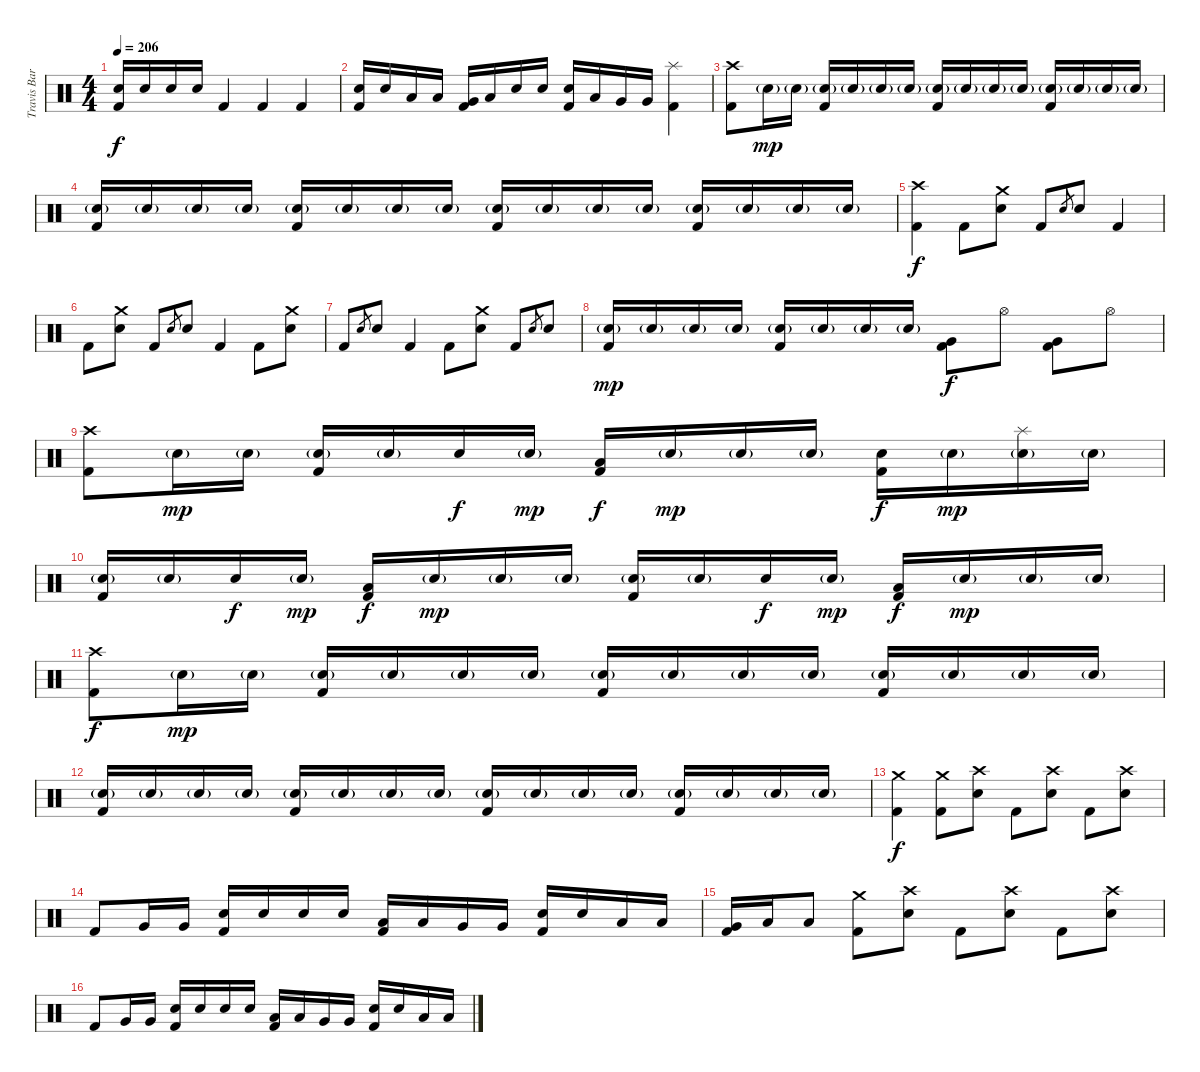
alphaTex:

\track ("Travis Barker - Drums" "Travis Bar") {instrument percussion}
\staff {score}
\articulation defaults
\ts (4 4)
\tempo 206
\clef neutral
\ks c
("Electric Snare (hit)" "Kick (hit) 2").16{dy f} "Electric Snare (hit)".16 "Electric Snare (hit)".16 "Electric Snare (hit)".16 "Kick (hit) 2".4 "Kick (hit) 2".4 "Kick (hit) 2".4 |
("Electric Snare (hit)" "Kick (hit) 2").16 "Electric Snare (hit)".16 "Low Tom (hit)".16 "Low Tom (hit)".16 ("Very Low Tom (hit)" "Kick (hit) 2").16 "Low Floor Tom (hit)".16 "Electric Snare (hit)".16 "Electric Snare (hit)".16 ("Electric Snare (hit)" "Kick (hit) 2").16 "Low Tom (hit)".16 "Very Low Tom (hit)".16 "Very Low Tom (hit)".16 ("Splash (hit)" "Kick (hit) 2").4 |
("Crash high (hit)" "Kick (hit) 2").8 "Electric Snare (hit)"{g}.16{dy mp} "Electric Snare (hit)"{g}.16 ("Electric Snare (hit)"{g} "Kick (hit) 2").16 "Electric Snare (hit)"{g}.16 "Electric Snare (hit)"{g}.16 "Electric Snare (hit)"{g}.16 ("Electric Snare (hit)"{g} "Kick (hit) 2").16 "Electric Snare (hit)"{g}.16 "Electric Snare (hit)"{g}.16 "Electric Snare (hit)"{g}.16 ("Electric Snare (hit)"{g} "Kick (hit) 2").16 "Electric Snare (hit)"{g}.16 "Electric Snare (hit)"{g}.16 "Electric Snare (hit)"{g}.16 |
("Electric Snare (hit)"{g} "Kick (hit) 2").16 "Electric Snare (hit)"{g}.16 "Electric Snare (hit)"{g}.16 "Electric Snare (hit)"{g}.16 ("Electric Snare (hit)"{g} "Kick (hit) 2").16 "Electric Snare (hit)"{g}.16 "Electric Snare (hit)"{g}.16 "Electric Snare (hit)"{g}.16 ("Electric Snare (hit)"{g} "Kick (hit) 2").16 "Electric Snare (hit)"{g}.16 "Electric Snare (hit)"{g}.16 "Electric Snare (hit)"{g}.16 ("Electric Snare (hit)"{g} "Kick (hit) 2").16 "Electric Snare (hit)"{g}.16 "Electric Snare (hit)"{g}.16 "Electric Snare (hit)"{g}.16 |
("Crash high (hit)" "Kick (hit) 2").4{dy f} "Kick (hit) 2".8 ("Crash medium (hit)" "Electric Snare (hit)").8 "Kick (hit) 2".8 "Electric Snare (hit)".8{gr} "Electric Snare (hit)".8 "Kick (hit) 2".4 |
"Kick (hit) 2".8 ("Crash medium (hit)" "Electric Snare (hit)").8 "Kick (hit) 2".8 "Electric Snare (hit)".8{gr} "Electric Snare (hit)".8 "Kick (hit) 2".4 "Kick (hit) 2".8 ("Crash medium (hit)" "Electric Snare (hit)").8 |
"Kick (hit) 2".8 "Electric Snare (hit)".8{gr} "Electric Snare (hit)".8 "Kick (hit) 2".4 "Kick (hit) 2".8 ("Crash medium (hit)" "Electric Snare (hit)").8 "Kick (hit) 2".8 "Electric Snare (hit)".8{gr} "Electric Snare (hit)".8 |
("Electric Snare (hit)"{g} "Kick (hit) 2").16{dy mp} "Electric Snare (hit)"{g}.16 "Electric Snare (hit)"{g}.16 "Electric Snare (hit)"{g}.16 ("Electric Snare (hit)"{g} "Kick (hit) 2").16 "Electric Snare (hit)"{g}.16 "Electric Snare (hit)"{g}.16 "Electric Snare (hit)"{g}.16 ("Very Low Tom (hit)" "Kick (hit) 2").8{dy f} "Hi-Hat (open)".8 ("Very Low Tom (hit)" "Kick (hit) 2").8 "Hi-Hat (open)".8 |
("Crash high (hit)" "Kick (hit) 2").8 "Electric Snare (hit)"{g}.16{dy mp} "Electric Snare (hit)"{g}.16 ("Electric Snare (hit)"{g} "Kick (hit) 2").16 "Electric Snare (hit)"{g}.16 "Electric Snare (hit)".16{dy f} "Electric Snare (hit)"{g}.16{dy mp} ("Low Tom (hit)" "Kick (hit) 2").16{dy f} "Electric Snare (hit)"{g}.16{dy mp} "Electric Snare (hit)"{g}.16 "Electric Snare (hit)"{g}.16 ("Electric Snare (hit)" "Kick (hit) 2").16{dy f} "Electric Snare (hit)"{g}.16{dy mp} ("Splash (hit)" "Electric Snare (hit)"{g}).16 "Electric Snare (hit)"{g}.16 |
("Electric Snare (hit)"{g} "Kick (hit) 2").16 "Electric Snare (hit)"{g}.16 "Electric Snare (hit)".16{dy f} "Electric Snare (hit)"{g}.16{dy mp} ("Low Tom (hit)" "Kick (hit) 2").16{dy f} "Electric Snare (hit)"{g}.16{dy mp} "Electric Snare (hit)"{g}.16 "Electric Snare (hit)"{g}.16 ("Electric Snare (hit)"{g} "Kick (hit) 2").16 "Electric Snare (hit)"{g}.16 "Electric Snare (hit)".16{dy f} "Electric Snare (hit)"{g}.16{dy mp} ("Low Tom (hit)" "Kick (hit) 2").16{dy f} "Electric Snare (hit)"{g}.16{dy mp} "Electric Snare (hit)"{g}.16 "Electric Snare (hit)"{g}.16 |
("Crash high (hit)" "Kick (hit) 2").8{dy f} "Electric Snare (hit)"{g}.16{dy mp} "Electric Snare (hit)"{g}.16 ("Electric Snare (hit)"{g} "Kick (hit) 2").16 "Electric Snare (hit)"{g}.16 "Electric Snare (hit)"{g}.16 "Electric Snare (hit)"{g}.16 ("Electric Snare (hit)"{g} "Kick (hit) 2").16 "Electric Snare (hit)"{g}.16 "Electric Snare (hit)"{g}.16 "Electric Snare (hit)"{g}.16 ("Electric Snare (hit)"{g} "Kick (hit) 2").16 "Electric Snare (hit)"{g}.16 "Electric Snare (hit)"{g}.16 "Electric Snare (hit)"{g}.16 |
("Electric Snare (hit)"{g} "Kick (hit) 2").16 "Electric Snare (hit)"{g}.16 "Electric Snare (hit)"{g}.16 "Electric Snare (hit)"{g}.16 ("Electric Snare (hit)"{g} "Kick (hit) 2").16 "Electric Snare (hit)"{g}.16 "Electric Snare (hit)"{g}.16 "Electric Snare (hit)"{g}.16 ("Electric Snare (hit)"{g} "Kick (hit) 2").16 "Electric Snare (hit)"{g}.16 "Electric Snare (hit)"{g}.16 "Electric Snare (hit)"{g}.16 ("Electric Snare (hit)"{g} "Kick (hit) 2").16 "Electric Snare (hit)"{g}.16 "Electric Snare (hit)"{g}.16 "Electric Snare (hit)"{g}.16 |
("Crash medium (hit)" "Kick (hit) 2").4{dy f} ("Crash medium (hit)" "Kick (hit) 2").8 ("Crash high (hit)" "Electric Snare (hit)").8 "Kick (hit) 2".8 ("Crash high (hit)" "Electric Snare (hit)").8 "Kick (hit) 2".8 ("Crash high (hit)" "Electric Snare (hit)").8 |
"Kick (hit) 2".8 "Very Low Tom (hit)".16 "Very Low Tom (hit)".16 ("Electric Snare (hit)" "Kick (hit) 2").16 "Electric Snare (hit)".16 "Electric Snare (hit)".16 "Electric Snare (hit)".16 ("Low Tom (hit)" "Kick (hit) 2").16 "Low Tom (hit)".16 "Very Low Tom (hit)".16 "Very Low Tom (hit)".16 ("Electric Snare (hit)" "Kick (hit) 2").16 "Electric Snare (hit)".16 "Low Tom (hit)".16 "Low Tom (hit)".16 |
("Very Low Tom (hit)" "Kick (hit) 2").16 "Low Floor Tom (hit)".16 "Low Floor Tom (hit)".8 ("Crash medium (hit)" "Kick (hit) 2").8 ("Crash high (hit)" "Electric Snare (hit)").8 "Kick (hit) 2".8 ("Crash high (hit)" "Electric Snare (hit)").8 "Kick (hit) 2".8 ("Crash high (hit)" "Electric Snare (hit)").8 |
"Kick (hit) 2".8 "Very Low Tom (hit)".16 "Very Low Tom (hit)".16 ("Electric Snare (hit)" "Kick (hit) 2").16 "Electric Snare (hit)".16 "Electric Snare (hit)".16 "Electric Snare (hit)".16 ("Low Tom (hit)" "Kick (hit) 2").16 "Low Tom (hit)".16 "Very Low Tom (hit)".16 "Very Low Tom (hit)".16 ("Electric Snare (hit)" "Kick (hit) 2").16 "Electric Snare (hit)".16 "Low Floor Tom (hit)".16 "Low Floor Tom (hit)".16
